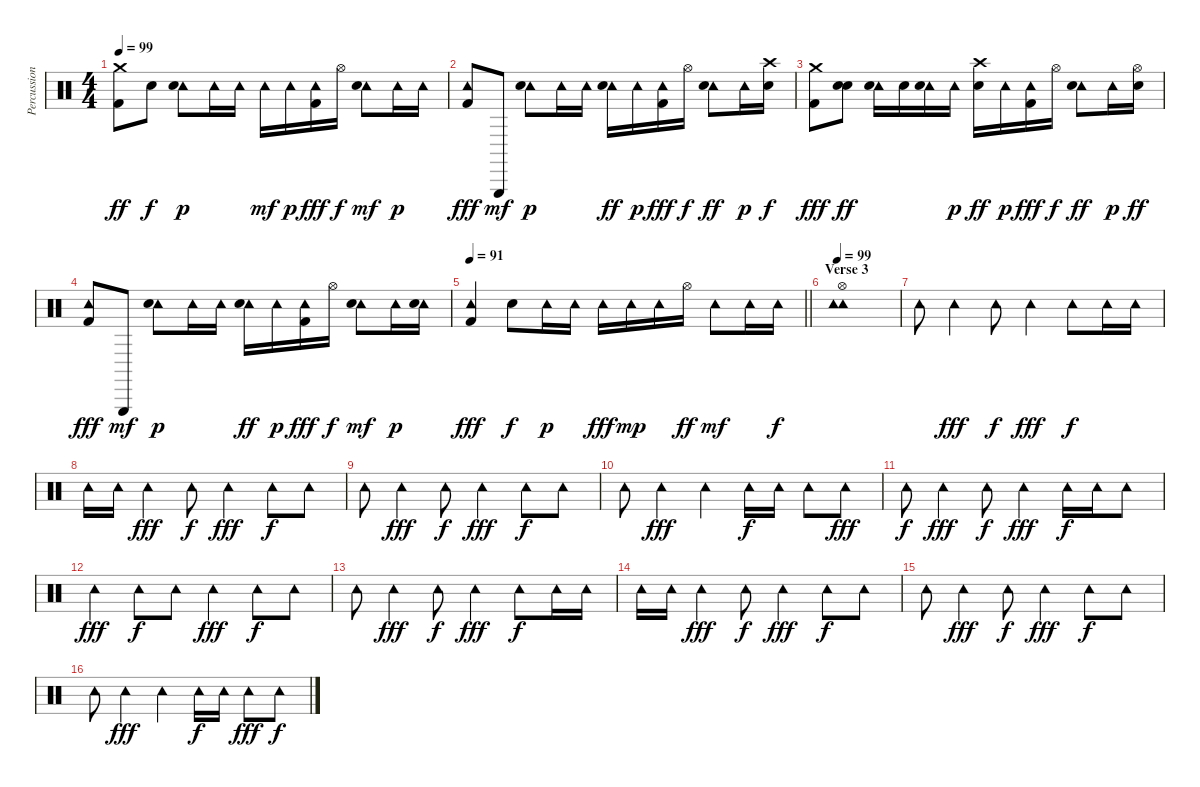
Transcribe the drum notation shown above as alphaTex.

\track ("Percussion" "Percussion") {instrument percussion}
\staff {score}
\articulation defaults
\ts (4 4)
\tempo 99
\clef neutral
\ks c
("Crash medium (hit)" "Kick (hit) 2").8{dy ff} "Metronome (bell)".8{dy f} ("Tambourine (hit)" "Snare (hit) 2").8{dy p} "Tambourine (hit)".16 "Tambourine (hit)".16 "Tambourine (hit)".16{dy mf} "Tambourine (hit)".16{dy p} ("Tambourine (hit)" "Kick (hit) 2").16{dy fff} "Hi-Hat (open)".16{dy f} ("Tambourine (hit)" "Snare (hit) 2").8{dy mf} "Tambourine (hit)".16{dy p} "Tambourine (hit)".16 |
("Tambourine (hit)" "Kick (hit) 2").8{dy fff} "Triangle (hit)".8{dy mf} ("Tambourine (hit)" "Snare (hit) 2").8{dy p} "Tambourine (hit)".16 "Tambourine (hit)".16 ("Tambourine (hit)" "Snare (hit) 2").16{dy ff} "Tambourine (hit)".16{dy p} ("Tambourine (hit)" "Kick (hit) 2").16{dy fff} "Hi-Hat (open)".16{dy f} ("Tambourine (hit)" "Snare (hit) 2").8{dy ff} "Tambourine (hit)".16{dy p} ("Crash high (hit)" "Snare (hit) 2").16{dy f} |
("Crash medium (hit)" "Kick (hit) 2").8{dy fff} ("Metronome (bell)" "Snare (hit) 2").8{dy ff} ("Tambourine (hit)" "Snare (hit) 2").16 "Electric Snare (hit)".16 ("Tambourine (hit)" "Snare (hit) 2").16 "Tambourine (hit)".16{dy p} ("Crash high (hit)" "Snare (hit) 2").16{dy ff} "Tambourine (hit)".16{dy p} ("Tambourine (hit)" "Kick (hit) 2").16{dy fff} "Hi-Hat (open)".16{dy f} ("Tambourine (hit)" "Snare (hit) 2").8{dy ff} "Tambourine (hit)".16{dy p} ("Hi-Hat (open)" "Snare (hit) 2").16{dy ff} |
("Tambourine (hit)" "Kick (hit) 2").8{dy fff} "Triangle (hit)".8{dy mf} ("Tambourine (hit)" "Snare (hit) 2").8{dy p} "Tambourine (hit)".16 "Tambourine (hit)".16 ("Tambourine (hit)" "Snare (hit) 2").16{dy ff} "Tambourine (hit)".16{dy p} ("Tambourine (hit)" "Kick (hit) 2").16{dy fff} "Hi-Hat (open)".16{dy f} ("Tambourine (hit)" "Snare (hit) 2").8{dy mf} "Tambourine (hit)".16{dy p} ("Tambourine (hit)" "Snare (hit) 2").16 |
\tempo 91
\barLineRight lightlight
("Tambourine (hit)" "Kick (hit) 2").4{dy fff volume 5} "Metronome (bell)".8{dy f} "Tambourine (hit)".16{dy p} "Tambourine (hit)".16 "Tambourine (hit)".16{dy fff} "Tambourine (hit)".16{dy mp} "Tambourine (hit)".16 "Hi-Hat (open)".16{dy ff} "Tambourine (hit)".8{dy mf} "Tambourine (hit)".16 "Tambourine (hit)".16{dy f} |
\section ("" "Verse 3")
\tempo 99
("Tambourine (hit)" "Tambourine (hit)" "Hi-Hat (open)").1{bd 480} |
"Tambourine (hit)".8 "Tambourine (hit)".4{dy fff} "Tambourine (hit)".8{dy f} "Tambourine (hit)".4{dy fff} "Tambourine (hit)".8{dy f} "Tambourine (hit)".16 "Tambourine (hit)".16 |
"Tambourine (hit)".16 "Tambourine (hit)".16 "Tambourine (hit)".4{dy fff} "Tambourine (hit)".8{dy f} "Tambourine (hit)".4{dy fff} "Tambourine (hit)".8{dy f} "Tambourine (hit)".8 |
"Tambourine (hit)".8 "Tambourine (hit)".4{dy fff} "Tambourine (hit)".8{dy f} "Tambourine (hit)".4{dy fff} "Tambourine (hit)".8{dy f} "Tambourine (hit)".8 |
"Tambourine (hit)".8 "Tambourine (hit)".4{dy fff} "Tambourine (hit)".4 "Tambourine (hit)".16{dy f} "Tambourine (hit)".16 "Tambourine (hit)".8 "Tambourine (hit)".8{dy fff} |
"Tambourine (hit)".8{dy f} "Tambourine (hit)".4{dy fff} "Tambourine (hit)".8{dy f} "Tambourine (hit)".4{dy fff} "Tambourine (hit)".16{dy f} "Tambourine (hit)".16 "Tambourine (hit)".8 |
"Tambourine (hit)".4{dy fff} "Tambourine (hit)".8{dy f} "Tambourine (hit)".8 "Tambourine (hit)".4{dy fff} "Tambourine (hit)".8{dy f} "Tambourine (hit)".8 |
"Tambourine (hit)".8 "Tambourine (hit)".4{dy fff} "Tambourine (hit)".8{dy f} "Tambourine (hit)".4{dy fff} "Tambourine (hit)".8{dy f} "Tambourine (hit)".16 "Tambourine (hit)".16 |
"Tambourine (hit)".16 "Tambourine (hit)".16 "Tambourine (hit)".4{dy fff} "Tambourine (hit)".8{dy f} "Tambourine (hit)".4{dy fff} "Tambourine (hit)".8{dy f} "Tambourine (hit)".8 |
"Tambourine (hit)".8{volume 2} "Tambourine (hit)".4{dy fff} "Tambourine (hit)".8{dy f} "Tambourine (hit)".4{dy fff} "Tambourine (hit)".8{dy f} "Tambourine (hit)".8 |
"Tambourine (hit)".8 "Tambourine (hit)".4{dy fff} "Tambourine (hit)".4 "Tambourine (hit)".16{dy f} "Tambourine (hit)".16 "Tambourine (hit)".8{dy fff} "Tambourine (hit)".8{dy f}
